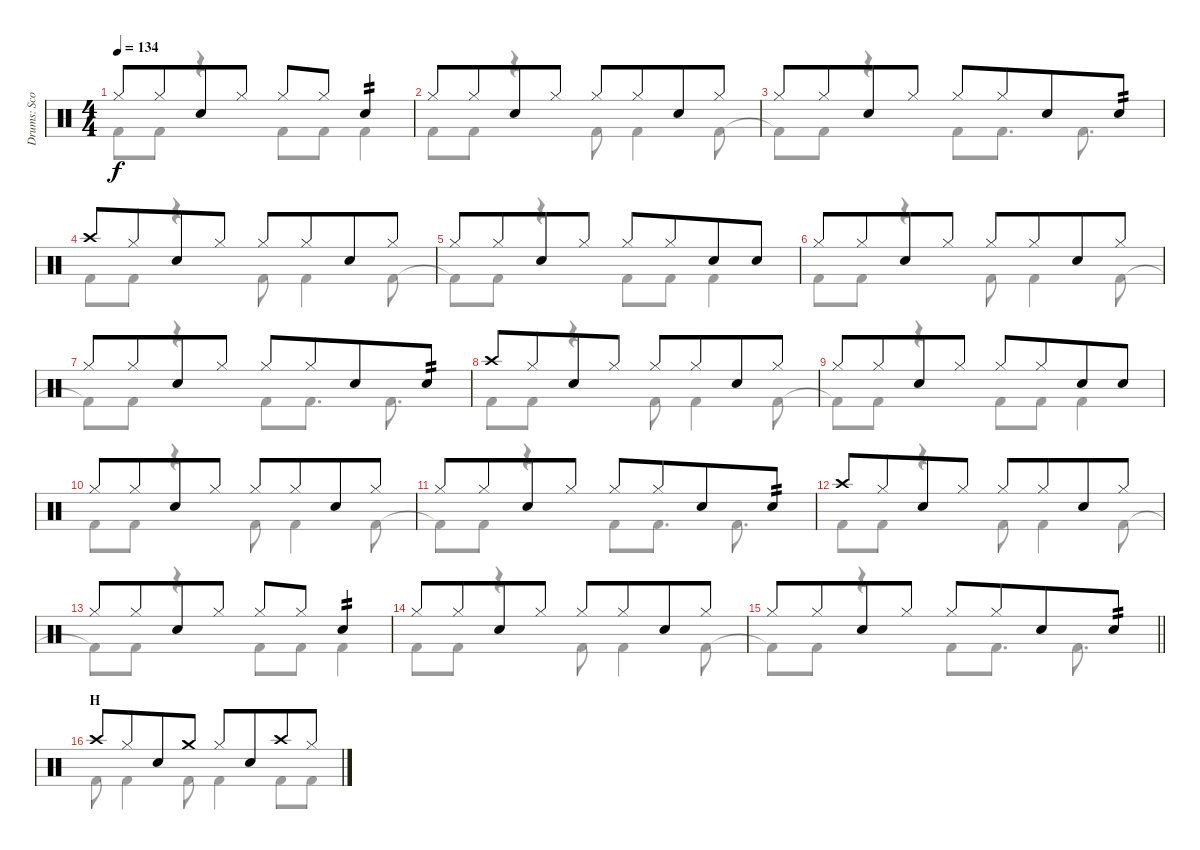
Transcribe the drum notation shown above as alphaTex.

\track ("Drums: Scott" "Drums: Sco") {instrument percussion}
\staff {score}
\articulation defaults
\voice
\ts (4 4)
\tempo 134
\clef neutral
\ks c "Hi-Hat (closed)".8{dy f} "Hi-Hat (closed)".8{beam merge} "Snare (hit) 2".8 "Hi-Hat (closed)".8 "Hi-Hat (closed)".8 "Hi-Hat (closed)".8{beam merge} "Snare (hit) 2".4{tp 2}
|
"Hi-Hat (closed)".8 "Hi-Hat (closed)".8{beam merge} "Snare (hit) 2".8 "Hi-Hat (closed)".8 "Hi-Hat (closed)".8 "Hi-Hat (closed)".8{beam merge} "Snare (hit) 2".8 "Hi-Hat (closed)".8 |
"Hi-Hat (closed)".8 "Hi-Hat (closed)".8{beam merge} "Snare (hit) 2".8 "Hi-Hat (closed)".8 "Hi-Hat (closed)".8 "Hi-Hat (closed)".8{beam merge} "Snare (hit) 2".8 "Snare (hit) 2".8{tp 2} |
"Crash high (hit)".8 "Hi-Hat (closed)".8{beam merge} "Snare (hit) 2".8 "Hi-Hat (closed)".8 "Hi-Hat (closed)".8 "Hi-Hat (closed)".8{beam merge} "Snare (hit) 2".8 "Hi-Hat (closed)".8 |
"Hi-Hat (closed)".8 "Hi-Hat (closed)".8{beam merge} "Snare (hit) 2".8 "Hi-Hat (closed)".8 "Hi-Hat (closed)".8 "Hi-Hat (closed)".8{beam merge} "Snare (hit) 2".8 "Snare (hit) 2".8 |
"Hi-Hat (closed)".8 "Hi-Hat (closed)".8{beam merge} "Snare (hit) 2".8 "Hi-Hat (closed)".8 "Hi-Hat (closed)".8 "Hi-Hat (closed)".8{beam merge} "Snare (hit) 2".8 "Hi-Hat (closed)".8 |
"Hi-Hat (closed)".8 "Hi-Hat (closed)".8{beam merge} "Snare (hit) 2".8 "Hi-Hat (closed)".8 "Hi-Hat (closed)".8 "Hi-Hat (closed)".8{beam merge} "Snare (hit) 2".8 "Snare (hit) 2".8{tp 2} |
"Crash high (hit)".8 "Hi-Hat (closed)".8{beam merge} "Snare (hit) 2".8 "Hi-Hat (closed)".8 "Hi-Hat (closed)".8 "Hi-Hat (closed)".8{beam merge} "Snare (hit) 2".8 "Hi-Hat (closed)".8 |
"Hi-Hat (closed)".8 "Hi-Hat (closed)".8{beam merge} "Snare (hit) 2".8 "Hi-Hat (closed)".8 "Hi-Hat (closed)".8 "Hi-Hat (closed)".8{beam merge} "Snare (hit) 2".8 "Snare (hit) 2".8 |
"Hi-Hat (closed)".8 "Hi-Hat (closed)".8{beam merge} "Snare (hit) 2".8 "Hi-Hat (closed)".8 "Hi-Hat (closed)".8 "Hi-Hat (closed)".8{beam merge} "Snare (hit) 2".8 "Hi-Hat (closed)".8 |
"Hi-Hat (closed)".8 "Hi-Hat (closed)".8{beam merge} "Snare (hit) 2".8 "Hi-Hat (closed)".8 "Hi-Hat (closed)".8 "Hi-Hat (closed)".8{beam merge} "Snare (hit) 2".8 "Snare (hit) 2".8{tp 2} |
"Crash high (hit)".8 "Hi-Hat (closed)".8{beam merge} "Snare (hit) 2".8 "Hi-Hat (closed)".8 "Hi-Hat (closed)".8 "Hi-Hat (closed)".8{beam merge} "Snare (hit) 2".8 "Hi-Hat (closed)".8 |
"Hi-Hat (closed)".8 "Hi-Hat (closed)".8{beam merge} "Snare (hit) 2".8 "Hi-Hat (closed)".8 "Hi-Hat (closed)".8 "Hi-Hat (closed)".8{beam merge} "Snare (hit) 2".4{tp 2} |
"Hi-Hat (closed)".8 "Hi-Hat (closed)".8{beam merge} "Snare (hit) 2".8 "Hi-Hat (closed)".8 "Hi-Hat (closed)".8 "Hi-Hat (closed)".8{beam merge} "Snare (hit) 2".8 "Hi-Hat (closed)".8 |
\barLineRight lightlight "Hi-Hat (closed)".8 "Hi-Hat (closed)".8{beam merge} "Snare (hit) 2".8 "Hi-Hat (closed)".8 "Hi-Hat (closed)".8 "Hi-Hat (closed)".8{beam merge} "Snare (hit) 2".8 "Snare (hit) 2".8{tp 2}
|
\section ("" "H")
"Crash high (hit)".8 "Hi-Hat (closed)".8{beam merge} "Snare (hit) 2".8 "Crash medium (hit)".8 "Hi-Hat (closed)".8 "Snare (hit) 2".8{beam merge} "Crash high (hit)".8 "Hi-Hat (closed)".8
\voice
\clef neutral
\ottava regular
\simile none
\ks c "Kick (hit) 2"{t}.8{dy f} "Kick (hit) 2".8
r.4 "Kick (hit) 2".8 "Kick (hit) 2".8 "Kick (hit) 2".4 |
"Kick (hit) 2".8 "Kick (hit) 2".8 r.4 "Kick (hit) 2".8 "Kick (hit) 2".4 "Kick (hit) 2".8 |
"Kick (hit) 2"{t}.8 "Kick (hit) 2".8 r.4 "Kick (hit) 2".8 "Kick (hit) 2".8{d} "Kick (hit) 2".8{d} |
"Kick (hit) 2".8 "Kick (hit) 2".8 r.4 "Kick (hit) 2".8 "Kick (hit) 2".4 "Kick (hit) 2".8 |
"Kick (hit) 2"{t}.8 "Kick (hit) 2".8 r.4 "Kick (hit) 2".8 "Kick (hit) 2".8 "Kick (hit) 2".4 |
"Kick (hit) 2".8 "Kick (hit) 2".8 r.4 "Kick (hit) 2".8 "Kick (hit) 2".4 "Kick (hit) 2".8 |
"Kick (hit) 2"{t}.8 "Kick (hit) 2".8 r.4 "Kick (hit) 2".8 "Kick (hit) 2".8{d} "Kick (hit) 2".8{d} |
"Kick (hit) 2".8 "Kick (hit) 2".8 r.4 "Kick (hit) 2".8 "Kick (hit) 2".4 "Kick (hit) 2".8 |
"Kick (hit) 2"{t}.8 "Kick (hit) 2".8 r.4 "Kick (hit) 2".8 "Kick (hit) 2".8 "Kick (hit) 2".4 |
"Kick (hit) 2".8 "Kick (hit) 2".8 r.4 "Kick (hit) 2".8 "Kick (hit) 2".4 "Kick (hit) 2".8 |
"Kick (hit) 2"{t}.8 "Kick (hit) 2".8 r.4 "Kick (hit) 2".8 "Kick (hit) 2".8{d} "Kick (hit) 2".8{d} |
"Kick (hit) 2".8 "Kick (hit) 2".8 r.4 "Kick (hit) 2".8 "Kick (hit) 2".4 "Kick (hit) 2".8 |
"Kick (hit) 2"{t}.8 "Kick (hit) 2".8 r.4 "Kick (hit) 2".8 "Kick (hit) 2".8 "Kick (hit) 2".4 |
"Kick (hit) 2".8 "Kick (hit) 2".8 r.4 "Kick (hit) 2".8 "Kick (hit) 2".4 "Kick (hit) 2".8 |
\barLineRight lightlight "Kick (hit) 2"{t}.8 "Kick (hit) 2".8
r.4 "Kick (hit) 2".8 "Kick (hit) 2".8{d} "Kick (hit) 2".8{d} |
"Kick (hit) 2".8 "Kick (hit) 2".4 "Kick (hit) 2".8 "Kick (hit) 2".4 "Kick (hit) 2".8 "Kick (hit) 2".8
